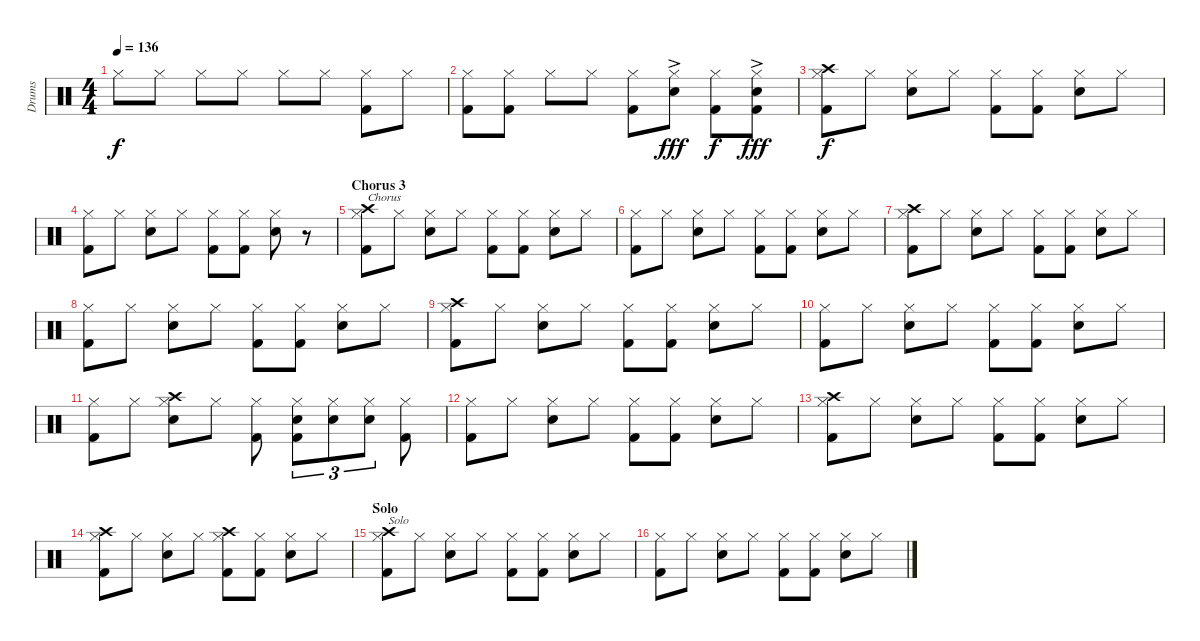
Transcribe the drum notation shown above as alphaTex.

\track ("Drums" "Drums") {instrument percussion}
\staff {score}
\articulation defaults
\ts (4 4)
\tempo 136
\clef neutral
\ks c "Hi-Hat (closed)".8{dy f} "Hi-Hat (closed)".8 "Hi-Hat (closed)".8 "Hi-Hat (closed)".8 "Hi-Hat (closed)".8 "Hi-Hat (closed)".8
("Hi-Hat (closed)" "Kick (hit) 2").8 "Hi-Hat (closed)".8 |
("Hi-Hat (closed)" "Kick (hit) 2").8 ("Hi-Hat (closed)" "Kick (hit) 2").8 "Hi-Hat (closed)".8 "Hi-Hat (closed)".8 ("Hi-Hat (closed)" "Kick (hit) 2").8 ("Snare (hit) 2"{ac} "Hi-Hat (closed)").8{dy fff} ("Hi-Hat (closed)" "Kick (hit) 2").8{dy f} ("Snare (hit) 2"{ac} "Hi-Hat (closed)" "Kick (hit) 2").8{dy fff} |
("Crash high (hit)" "Hi-Hat (closed)" "Kick (hit) 2").8{dy f} "Hi-Hat (closed)".8 ("Snare (hit) 2" "Hi-Hat (closed)").8 "Hi-Hat (closed)".8 ("Hi-Hat (closed)" "Kick (hit) 2").8 ("Hi-Hat (closed)" "Kick (hit) 2").8 ("Snare (hit) 2" "Hi-Hat (closed)").8 "Hi-Hat (closed)".8 |
("Hi-Hat (closed)" "Kick (hit) 2").8 "Hi-Hat (closed)".8 ("Snare (hit) 2" "Hi-Hat (closed)").8 "Hi-Hat (closed)".8 ("Hi-Hat (closed)" "Kick (hit) 2").8 ("Hi-Hat (closed)" "Kick (hit) 2").8 ("Snare (hit) 2" "Hi-Hat (closed)").8 r.8 |
\section ("" "Chorus 3")
("Crash high (hit)" "Hi-Hat (closed)" "Kick (hit) 2").8{txt "Chorus"} "Hi-Hat (closed)".8 ("Snare (hit) 2" "Hi-Hat (closed)").8 "Hi-Hat (closed)".8 ("Hi-Hat (closed)" "Kick (hit) 2").8 ("Hi-Hat (closed)" "Kick (hit) 2").8 ("Snare (hit) 2" "Hi-Hat (closed)").8 "Hi-Hat (closed)".8 |
("Hi-Hat (closed)" "Kick (hit) 2").8 "Hi-Hat (closed)".8 ("Snare (hit) 2" "Hi-Hat (closed)").8 "Hi-Hat (closed)".8 ("Hi-Hat (closed)" "Kick (hit) 2").8 ("Hi-Hat (closed)" "Kick (hit) 2").8 ("Snare (hit) 2" "Hi-Hat (closed)").8 "Hi-Hat (closed)".8 |
("Crash high (hit)" "Hi-Hat (closed)" "Kick (hit) 2").8 "Hi-Hat (closed)".8 ("Snare (hit) 2" "Hi-Hat (closed)").8 "Hi-Hat (closed)".8 ("Hi-Hat (closed)" "Kick (hit) 2").8 ("Hi-Hat (closed)" "Kick (hit) 2").8 ("Snare (hit) 2" "Hi-Hat (closed)").8 "Hi-Hat (closed)".8 |
("Hi-Hat (closed)" "Kick (hit) 2").8 "Hi-Hat (closed)".8 ("Snare (hit) 2" "Hi-Hat (closed)").8 "Hi-Hat (closed)".8 ("Hi-Hat (closed)" "Kick (hit) 2").8 ("Hi-Hat (closed)" "Kick (hit) 2").8 ("Snare (hit) 2" "Hi-Hat (closed)").8 "Hi-Hat (closed)".8 |
("Crash high (hit)" "Hi-Hat (closed)" "Kick (hit) 2").8 "Hi-Hat (closed)".8 ("Snare (hit) 2" "Hi-Hat (closed)").8 "Hi-Hat (closed)".8 ("Hi-Hat (closed)" "Kick (hit) 2").8 ("Hi-Hat (closed)" "Kick (hit) 2").8 ("Snare (hit) 2" "Hi-Hat (closed)").8 "Hi-Hat (closed)".8 |
("Hi-Hat (closed)" "Kick (hit) 2").8 "Hi-Hat (closed)".8 ("Snare (hit) 2" "Hi-Hat (closed)").8 "Hi-Hat (closed)".8 ("Hi-Hat (closed)" "Kick (hit) 2").8 ("Hi-Hat (closed)" "Kick (hit) 2").8 ("Snare (hit) 2" "Hi-Hat (closed)").8 "Hi-Hat (closed)".8 |
("Hi-Hat (closed)" "Kick (hit) 2").8 "Hi-Hat (closed)".8 ("Snare (hit) 2" "Crash high (hit)" "Hi-Hat (closed)").8 "Hi-Hat (closed)".8 ("Hi-Hat (closed)" "Kick (hit) 2").8 ("Snare (hit) 2" "Hi-Hat (closed)" "Kick (hit) 2").8{tu (3 2)} ("Snare (hit) 2" "Hi-Hat (closed)").8{tu (3 2)} ("Snare (hit) 2" "Hi-Hat (closed)").8{tu (3 2)} ("Hi-Hat (closed)" "Kick (hit) 2").8 |
("Hi-Hat (closed)" "Kick (hit) 2").8 "Hi-Hat (closed)".8 ("Snare (hit) 2" "Hi-Hat (closed)").8 "Hi-Hat (closed)".8 ("Hi-Hat (closed)" "Kick (hit) 2").8 ("Hi-Hat (closed)" "Kick (hit) 2").8 ("Snare (hit) 2" "Hi-Hat (closed)").8 "Hi-Hat (closed)".8 |
("Crash high (hit)" "Hi-Hat (closed)" "Kick (hit) 2").8 "Hi-Hat (closed)".8 ("Snare (hit) 2" "Hi-Hat (closed)").8 "Hi-Hat (closed)".8 ("Hi-Hat (closed)" "Kick (hit) 2").8 ("Hi-Hat (closed)" "Kick (hit) 2").8 ("Snare (hit) 2" "Hi-Hat (closed)").8 "Hi-Hat (closed)".8 |
("Crash high (hit)" "Hi-Hat (closed)" "Kick (hit) 2").8 "Hi-Hat (closed)".8 ("Snare (hit) 2" "Hi-Hat (closed)").8 "Hi-Hat (closed)".8 ("Crash high (hit)" "Hi-Hat (closed)" "Kick (hit) 2").8 ("Hi-Hat (closed)" "Kick (hit) 2").8 ("Snare (hit) 2" "Hi-Hat (closed)").8 "Hi-Hat (closed)".8 |
\section ("" "Solo")
("Crash high (hit)" "Hi-Hat (closed)" "Kick (hit) 2").8{txt "Solo"} "Hi-Hat (closed)".8 ("Snare (hit) 2" "Hi-Hat (closed)").8 "Hi-Hat (closed)".8 ("Hi-Hat (closed)" "Kick (hit) 2").8 ("Hi-Hat (closed)" "Kick (hit) 2").8 ("Snare (hit) 2" "Hi-Hat (closed)").8 "Hi-Hat (closed)".8 |
("Hi-Hat (closed)" "Kick (hit) 2").8 "Hi-Hat (closed)".8 ("Snare (hit) 2" "Hi-Hat (closed)").8 "Hi-Hat (closed)".8 ("Hi-Hat (closed)" "Kick (hit) 2").8 ("Hi-Hat (closed)" "Kick (hit) 2").8 ("Snare (hit) 2" "Hi-Hat (closed)").8 "Hi-Hat (closed)".8
